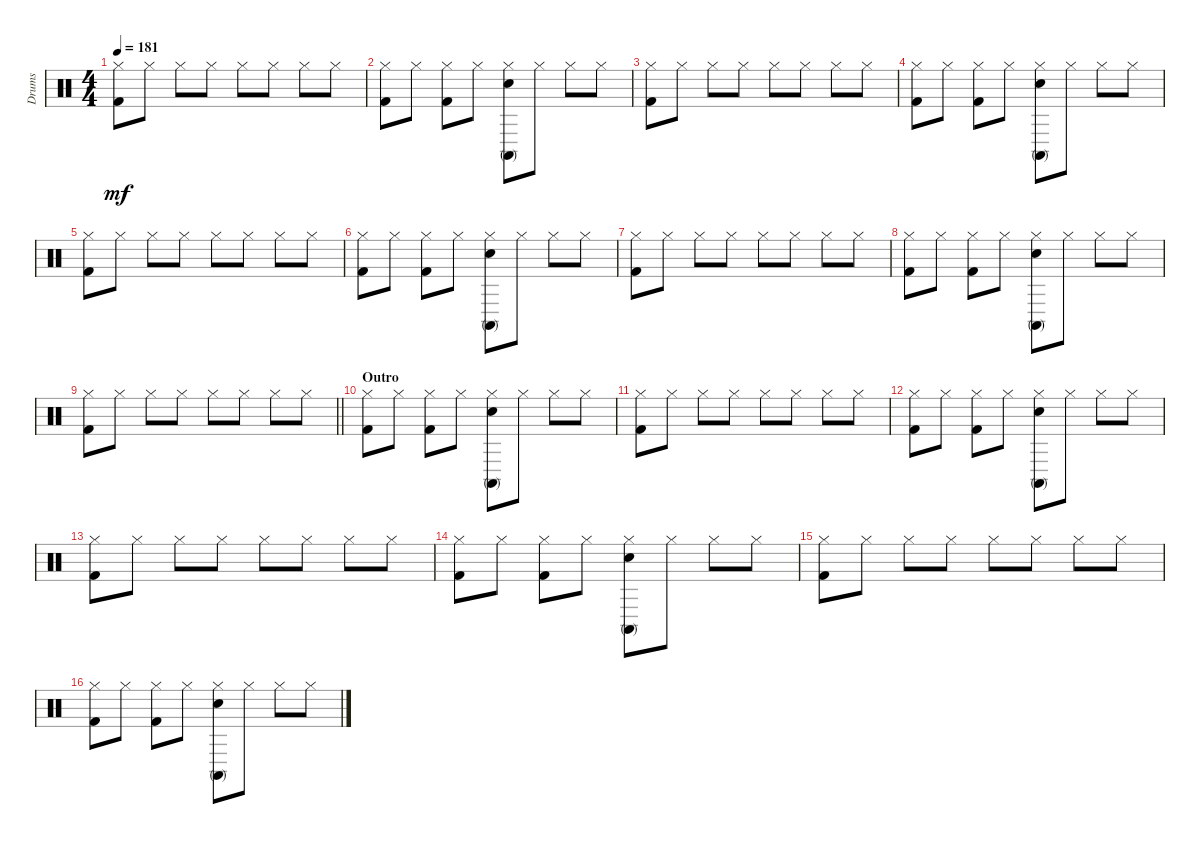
\track ("Drums" "Drums") {instrument percussion}
\staff {score}
\articulation defaults
\ts (4 4)
\tempo 181
\clef neutral
\ks c
("Hi-Hat (closed)" "Kick (hit) 2").8{dy mf} "Hi-Hat (closed)".8 "Hi-Hat (closed)".8 "Hi-Hat (closed)".8 "Hi-Hat (closed)".8 "Hi-Hat (closed)".8 "Hi-Hat (closed)".8 "Hi-Hat (closed)".8 |
("Hi-Hat (closed)" "Kick (hit) 2").8 "Hi-Hat (closed)".8 ("Hi-Hat (closed)" "Kick (hit) 2").8 "Hi-Hat (closed)".8 ("Hi-Hat (closed)" "Conga high (mute)" "Electric Snare (hit)").8 "Hi-Hat (closed)".8 "Hi-Hat (closed)".8 "Hi-Hat (closed)".8 |
("Hi-Hat (closed)" "Kick (hit) 2").8 "Hi-Hat (closed)".8 "Hi-Hat (closed)".8 "Hi-Hat (closed)".8 "Hi-Hat (closed)".8 "Hi-Hat (closed)".8 "Hi-Hat (closed)".8 "Hi-Hat (closed)".8 |
("Hi-Hat (closed)" "Kick (hit) 2").8 "Hi-Hat (closed)".8 ("Hi-Hat (closed)" "Kick (hit) 2").8 "Hi-Hat (closed)".8 ("Hi-Hat (closed)" "Conga high (mute)" "Electric Snare (hit)").8 "Hi-Hat (closed)".8 "Hi-Hat (closed)".8 "Hi-Hat (closed)".8 |
("Hi-Hat (closed)" "Kick (hit) 2").8 "Hi-Hat (closed)".8 "Hi-Hat (closed)".8 "Hi-Hat (closed)".8 "Hi-Hat (closed)".8 "Hi-Hat (closed)".8 "Hi-Hat (closed)".8 "Hi-Hat (closed)".8 |
("Hi-Hat (closed)" "Kick (hit) 2").8 "Hi-Hat (closed)".8 ("Hi-Hat (closed)" "Kick (hit) 2").8 "Hi-Hat (closed)".8 ("Hi-Hat (closed)" "Conga high (mute)" "Electric Snare (hit)").8 "Hi-Hat (closed)".8 "Hi-Hat (closed)".8 "Hi-Hat (closed)".8 |
("Hi-Hat (closed)" "Kick (hit) 2").8 "Hi-Hat (closed)".8 "Hi-Hat (closed)".8 "Hi-Hat (closed)".8 "Hi-Hat (closed)".8 "Hi-Hat (closed)".8 "Hi-Hat (closed)".8 "Hi-Hat (closed)".8 |
("Hi-Hat (closed)" "Kick (hit) 2").8 "Hi-Hat (closed)".8 ("Hi-Hat (closed)" "Kick (hit) 2").8 "Hi-Hat (closed)".8 ("Hi-Hat (closed)" "Conga high (mute)" "Electric Snare (hit)").8 "Hi-Hat (closed)".8 "Hi-Hat (closed)".8 "Hi-Hat (closed)".8 |
\barLineRight lightlight
("Hi-Hat (closed)" "Kick (hit) 2").8 "Hi-Hat (closed)".8 "Hi-Hat (closed)".8 "Hi-Hat (closed)".8 "Hi-Hat (closed)".8 "Hi-Hat (closed)".8 "Hi-Hat (closed)".8 "Hi-Hat (closed)".8 |
\section ("" "Outro")
("Hi-Hat (closed)" "Kick (hit) 2").8 "Hi-Hat (closed)".8 ("Hi-Hat (closed)" "Kick (hit) 2").8 "Hi-Hat (closed)".8 ("Hi-Hat (closed)" "Conga high (mute)" "Electric Snare (hit)").8 "Hi-Hat (closed)".8 "Hi-Hat (closed)".8 "Hi-Hat (closed)".8 |
("Hi-Hat (closed)" "Kick (hit) 2").8 "Hi-Hat (closed)".8 "Hi-Hat (closed)".8 "Hi-Hat (closed)".8 "Hi-Hat (closed)".8 "Hi-Hat (closed)".8 "Hi-Hat (closed)".8 "Hi-Hat (closed)".8 |
("Hi-Hat (closed)" "Kick (hit) 2").8 "Hi-Hat (closed)".8 ("Hi-Hat (closed)" "Kick (hit) 2").8 "Hi-Hat (closed)".8 ("Hi-Hat (closed)" "Conga high (mute)" "Electric Snare (hit)").8 "Hi-Hat (closed)".8 "Hi-Hat (closed)".8 "Hi-Hat (closed)".8 |
("Hi-Hat (closed)" "Kick (hit) 2").8 "Hi-Hat (closed)".8 "Hi-Hat (closed)".8 "Hi-Hat (closed)".8 "Hi-Hat (closed)".8 "Hi-Hat (closed)".8 "Hi-Hat (closed)".8 "Hi-Hat (closed)".8 |
("Hi-Hat (closed)" "Kick (hit) 2").8 "Hi-Hat (closed)".8 ("Hi-Hat (closed)" "Kick (hit) 2").8 "Hi-Hat (closed)".8 ("Hi-Hat (closed)" "Conga high (mute)" "Electric Snare (hit)").8 "Hi-Hat (closed)".8 "Hi-Hat (closed)".8 "Hi-Hat (closed)".8 |
("Hi-Hat (closed)" "Kick (hit) 2").8 "Hi-Hat (closed)".8 "Hi-Hat (closed)".8 "Hi-Hat (closed)".8 "Hi-Hat (closed)".8 "Hi-Hat (closed)".8 "Hi-Hat (closed)".8 "Hi-Hat (closed)".8 |
("Hi-Hat (closed)" "Kick (hit) 2").8 "Hi-Hat (closed)".8 ("Hi-Hat (closed)" "Kick (hit) 2").8 "Hi-Hat (closed)".8 ("Hi-Hat (closed)" "Conga high (mute)" "Electric Snare (hit)").8 "Hi-Hat (closed)".8 "Hi-Hat (closed)".8 "Hi-Hat (closed)".8
